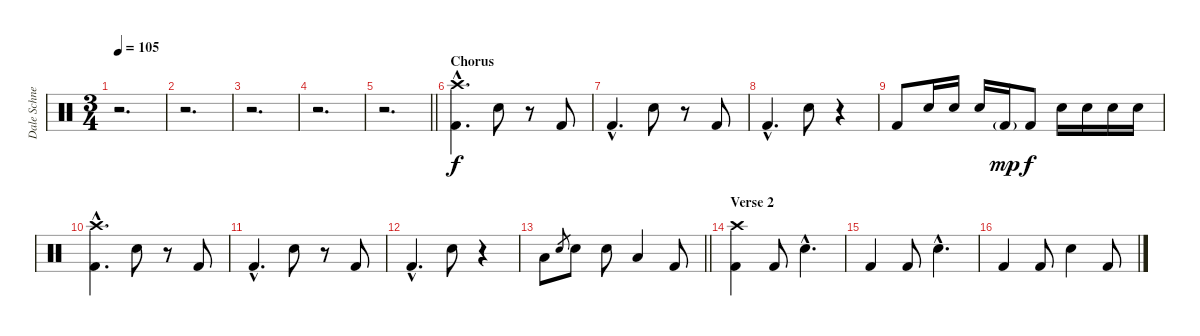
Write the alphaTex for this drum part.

\track ("Dale Schnettler (Drums)" "Dale Schne") {instrument percussion}
\staff {score}
\articulation defaults
\ts (3 4)
\tempo 105
\clef neutral
\ks c
r.2{d dy f} |
r.2{d} |
r.2{d} |
r.2{d} |
\barLineRight lightlight
r.2{d} |
\section ("" "Chorus")
("Crash high (hit)"{hac} "Kick (hit) 2"{hac}).4{d} "Electric Snare (hit)".8 r.8 "Kick (hit) 2".8 |
"Kick (hit) 2"{hac}.4{d} "Electric Snare (hit)".8 r.8 "Kick (hit) 2".8 |
"Kick (hit) 2"{hac}.4{d} "Electric Snare (hit)".8 r.4 |
"Kick (hit) 2".8 "Electric Snare (hit)".16 "Electric Snare (hit)".16 "Electric Snare (hit)".16 "Kick (hit) 2"{g}.16{dy mp} "Kick (hit) 2".8{dy f} "Electric Snare (hit)".16 "Electric Snare (hit)".16 "Electric Snare (hit)".16 "Electric Snare (hit)".16 |
("Crash high (hit)"{hac} "Kick (hit) 2"{hac}).4{d} "Electric Snare (hit)".8 r.8 "Kick (hit) 2".8 |
"Kick (hit) 2"{hac}.4{d} "Electric Snare (hit)".8 r.8 "Kick (hit) 2".8 |
"Kick (hit) 2"{hac}.4{d} "Electric Snare (hit)".8 r.4 |
\barLineRight lightlight "Low Tom (hit)".8 "Electric Snare (hit)".8{gr} "Electric Snare (hit)".8 "Electric Snare (hit)".8 "Low Tom (hit)".4 "Kick (hit) 2".8
|
\section ("" "Verse 2")
("Crash high (hit)" "Kick (hit) 2").4 "Kick (hit) 2".8 "Electric Snare (hit)"{hac}.4{d} |
"Kick (hit) 2".4 "Kick (hit) 2".8 "Electric Snare (hit)"{hac}.4{d} |
"Kick (hit) 2".4 "Kick (hit) 2".8 "Electric Snare (hit)".4 "Kick (hit) 2".8
